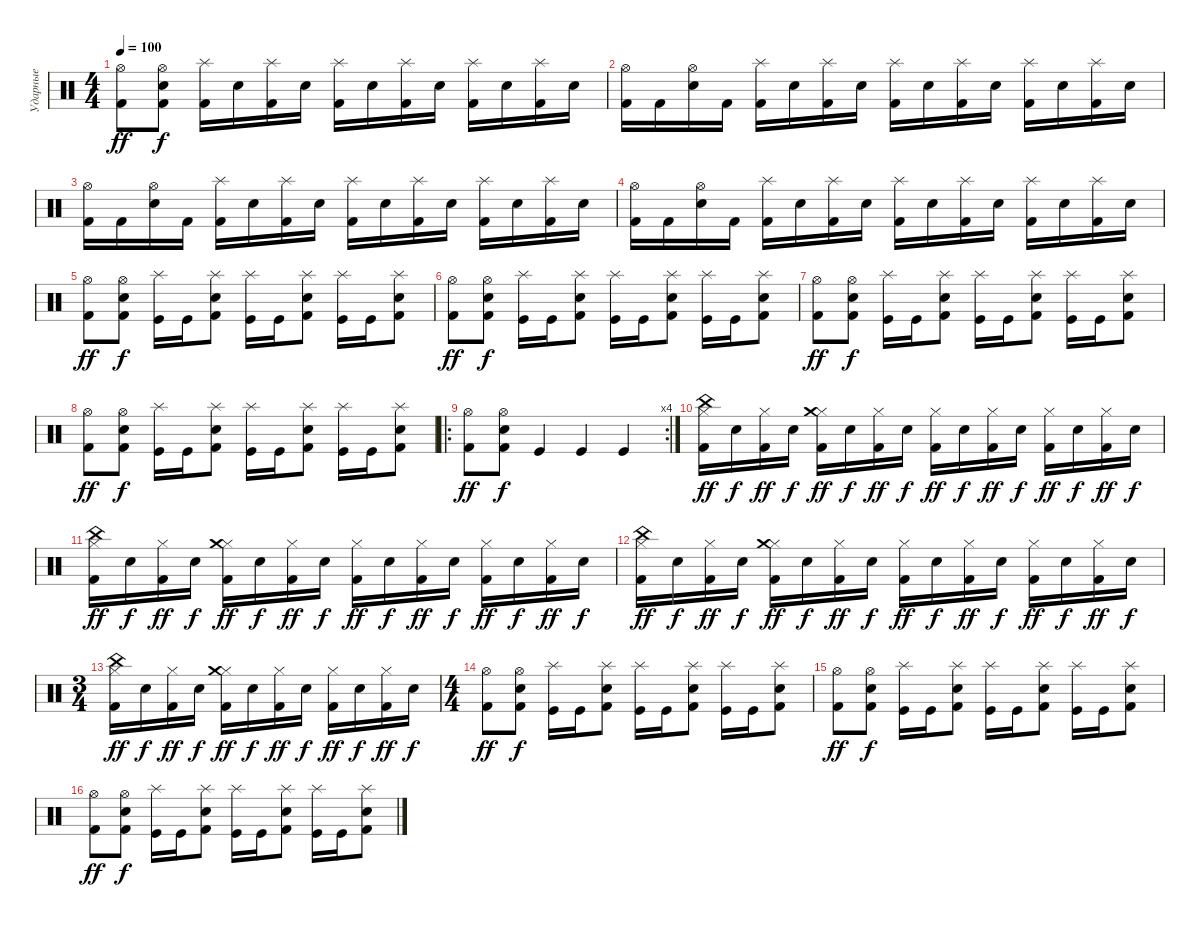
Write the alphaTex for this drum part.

\track ("Ударные" "Ударные") {instrument percussion}
\staff {score}
\articulation defaults
\ts (4 4)
\tempo 100
\clef neutral
\ks c
("Hi-Hat (open)" "Kick (hit) 2").8{dy ff} ("Hi-Hat (open)" "Electric Snare (hit)" "Kick (hit) 2").8{dy f} ("Splash (hit)" "Kick (hit) 2").16 "Electric Snare (hit)".16 ("Splash (hit)" "Kick (hit) 2").16 "Electric Snare (hit)".16 ("Splash (hit)" "Kick (hit) 2").16 "Electric Snare (hit)".16 ("Splash (hit)" "Kick (hit) 2").16 "Electric Snare (hit)".16 ("Splash (hit)" "Kick (hit) 2").16 "Electric Snare (hit)".16 ("Splash (hit)" "Kick (hit) 2").16 "Electric Snare (hit)".16 |
("Hi-Hat (open)" "Kick (hit) 2").16 "Kick (hit) 2".16 ("Hi-Hat (open)" "Electric Snare (hit)").16 "Kick (hit) 2".16 ("Splash (hit)" "Kick (hit) 2").16 "Electric Snare (hit)".16 ("Splash (hit)" "Kick (hit) 2").16 "Electric Snare (hit)".16 ("Splash (hit)" "Kick (hit) 2").16 "Electric Snare (hit)".16 ("Splash (hit)" "Kick (hit) 2").16 "Electric Snare (hit)".16 ("Splash (hit)" "Kick (hit) 2").16 "Electric Snare (hit)".16 ("Splash (hit)" "Kick (hit) 2").16 "Electric Snare (hit)".16 |
("Hi-Hat (open)" "Kick (hit) 2").16 "Kick (hit) 2".16 ("Hi-Hat (open)" "Electric Snare (hit)").16 "Kick (hit) 2".16 ("Splash (hit)" "Kick (hit) 2").16 "Electric Snare (hit)".16 ("Splash (hit)" "Kick (hit) 2").16 "Electric Snare (hit)".16 ("Splash (hit)" "Kick (hit) 2").16 "Electric Snare (hit)".16 ("Splash (hit)" "Kick (hit) 2").16 "Electric Snare (hit)".16 ("Splash (hit)" "Kick (hit) 2").16 "Electric Snare (hit)".16 ("Splash (hit)" "Kick (hit) 2").16 "Electric Snare (hit)".16 |
("Hi-Hat (open)" "Kick (hit) 2").16 "Kick (hit) 2".16 ("Hi-Hat (open)" "Electric Snare (hit)").16 "Kick (hit) 2".16 ("Splash (hit)" "Kick (hit) 2").16 "Electric Snare (hit)".16 ("Splash (hit)" "Kick (hit) 2").16 "Electric Snare (hit)".16 ("Splash (hit)" "Kick (hit) 2").16 "Electric Snare (hit)".16 ("Splash (hit)" "Kick (hit) 2").16 "Electric Snare (hit)".16 ("Splash (hit)" "Kick (hit) 2").16 "Electric Snare (hit)".16 ("Splash (hit)" "Kick (hit) 2").16 "Electric Snare (hit)".16 |
("Hi-Hat (open)" "Kick (hit) 2").8{dy ff} ("Hi-Hat (open)" "Electric Snare (hit)" "Kick (hit) 2").8{dy f} ("Splash (hit)" "Kick (hit)").16 "Kick (hit)".16 ("Splash (hit)" "Electric Snare (hit)" "Kick (hit) 2").8 ("Splash (hit)" "Kick (hit)").16 "Kick (hit)".16 ("Splash (hit)" "Electric Snare (hit)" "Kick (hit) 2").8 ("Splash (hit)" "Kick (hit)").16 "Kick (hit)".16 ("Splash (hit)" "Electric Snare (hit)" "Kick (hit) 2").8 |
("Hi-Hat (open)" "Kick (hit) 2").8{dy ff} ("Hi-Hat (open)" "Electric Snare (hit)" "Kick (hit) 2").8{dy f} ("Splash (hit)" "Kick (hit)").16 "Kick (hit)".16 ("Splash (hit)" "Electric Snare (hit)" "Kick (hit) 2").8 ("Splash (hit)" "Kick (hit)").16 "Kick (hit)".16 ("Splash (hit)" "Electric Snare (hit)" "Kick (hit) 2").8 ("Splash (hit)" "Kick (hit)").16 "Kick (hit)".16 ("Splash (hit)" "Electric Snare (hit)" "Kick (hit) 2").8 |
("Hi-Hat (open)" "Kick (hit) 2").8{dy ff} ("Hi-Hat (open)" "Electric Snare (hit)" "Kick (hit) 2").8{dy f} ("Splash (hit)" "Kick (hit)").16 "Kick (hit)".16 ("Splash (hit)" "Electric Snare (hit)" "Kick (hit) 2").8 ("Splash (hit)" "Kick (hit)").16 "Kick (hit)".16 ("Splash (hit)" "Electric Snare (hit)" "Kick (hit) 2").8 ("Splash (hit)" "Kick (hit)").16 "Kick (hit)".16 ("Splash (hit)" "Electric Snare (hit)" "Kick (hit) 2").8 |
("Hi-Hat (open)" "Kick (hit) 2").8{dy ff} ("Hi-Hat (open)" "Electric Snare (hit)" "Kick (hit) 2").8{dy f} ("Splash (hit)" "Kick (hit)").16 "Kick (hit)".16 ("Splash (hit)" "Electric Snare (hit)" "Kick (hit) 2").8 ("Splash (hit)" "Kick (hit)").16 "Kick (hit)".16 ("Splash (hit)" "Electric Snare (hit)" "Kick (hit) 2").8 ("Splash (hit)" "Kick (hit)").16 "Kick (hit)".16 ("Splash (hit)" "Electric Snare (hit)" "Kick (hit) 2").8 |
\ro
\rc 4
("Hi-Hat (open)" "Kick (hit) 2").8{dy ff} ("Hi-Hat (open)" "Electric Snare (hit)" "Kick (hit) 2").8{dy f} "Kick (hit)".4 "Kick (hit)".4 "Kick (hit)".4 |
("Hi-Hat (closed)" "China (hit)" "Kick (hit) 2").16{dy ff} "Electric Snare (hit)".16{dy f} ("Hi-Hat (closed)" "Kick (hit) 2").16{dy ff} "Electric Snare (hit)".16{dy f} ("Hi-Hat (closed)" "Crash medium (hit)" "Kick (hit) 2").16{dy ff} "Electric Snare (hit)".16{dy f} ("Hi-Hat (closed)" "Kick (hit) 2").16{dy ff} "Electric Snare (hit)".16{dy f} ("Hi-Hat (closed)" "Kick (hit) 2").16{dy ff} "Electric Snare (hit)".16{dy f} ("Hi-Hat (closed)" "Kick (hit) 2").16{dy ff} "Electric Snare (hit)".16{dy f} ("Hi-Hat (closed)" "Kick (hit) 2").16{dy ff} "Electric Snare (hit)".16{dy f} ("Hi-Hat (closed)" "Kick (hit) 2").16{dy ff} "Electric Snare (hit)".16{dy f} |
("Hi-Hat (closed)" "China (hit)" "Kick (hit) 2").16{dy ff} "Electric Snare (hit)".16{dy f} ("Hi-Hat (closed)" "Kick (hit) 2").16{dy ff} "Electric Snare (hit)".16{dy f} ("Hi-Hat (closed)" "Crash medium (hit)" "Kick (hit) 2").16{dy ff} "Electric Snare (hit)".16{dy f} ("Hi-Hat (closed)" "Kick (hit) 2").16{dy ff} "Electric Snare (hit)".16{dy f} ("Hi-Hat (closed)" "Kick (hit) 2").16{dy ff} "Electric Snare (hit)".16{dy f} ("Hi-Hat (closed)" "Kick (hit) 2").16{dy ff} "Electric Snare (hit)".16{dy f} ("Hi-Hat (closed)" "Kick (hit) 2").16{dy ff} "Electric Snare (hit)".16{dy f} ("Hi-Hat (closed)" "Kick (hit) 2").16{dy ff} "Electric Snare (hit)".16{dy f} |
("Hi-Hat (closed)" "China (hit)" "Kick (hit) 2").16{dy ff} "Electric Snare (hit)".16{dy f} ("Hi-Hat (closed)" "Kick (hit) 2").16{dy ff} "Electric Snare (hit)".16{dy f} ("Hi-Hat (closed)" "Crash medium (hit)" "Kick (hit) 2").16{dy ff} "Electric Snare (hit)".16{dy f} ("Hi-Hat (closed)" "Kick (hit) 2").16{dy ff} "Electric Snare (hit)".16{dy f} ("Hi-Hat (closed)" "Kick (hit) 2").16{dy ff} "Electric Snare (hit)".16{dy f} ("Hi-Hat (closed)" "Kick (hit) 2").16{dy ff} "Electric Snare (hit)".16{dy f} ("Hi-Hat (closed)" "Kick (hit) 2").16{dy ff} "Electric Snare (hit)".16{dy f} ("Hi-Hat (closed)" "Kick (hit) 2").16{dy ff} "Electric Snare (hit)".16{dy f} |
\ts (3 4)
("Hi-Hat (closed)" "China (hit)" "Kick (hit) 2").16{dy ff} "Electric Snare (hit)".16{dy f} ("Hi-Hat (closed)" "Kick (hit) 2").16{dy ff} "Electric Snare (hit)".16{dy f} ("Hi-Hat (closed)" "Crash medium (hit)" "Kick (hit) 2").16{dy ff} "Electric Snare (hit)".16{dy f} ("Hi-Hat (closed)" "Kick (hit) 2").16{dy ff} "Electric Snare (hit)".16{dy f} ("Hi-Hat (closed)" "Kick (hit) 2").16{dy ff} "Electric Snare (hit)".16{dy f} ("Hi-Hat (closed)" "Kick (hit) 2").16{dy ff} "Electric Snare (hit)".16{dy f} |
\ts (4 4)
("Hi-Hat (open)" "Kick (hit) 2").8{dy ff} ("Hi-Hat (open)" "Electric Snare (hit)" "Kick (hit) 2").8{dy f} ("Splash (hit)" "Kick (hit)").16 "Kick (hit)".16 ("Splash (hit)" "Electric Snare (hit)" "Kick (hit) 2").8 ("Splash (hit)" "Kick (hit)").16 "Kick (hit)".16 ("Splash (hit)" "Electric Snare (hit)" "Kick (hit) 2").8 ("Splash (hit)" "Kick (hit)").16 "Kick (hit)".16 ("Splash (hit)" "Electric Snare (hit)" "Kick (hit) 2").8 |
("Hi-Hat (open)" "Kick (hit) 2").8{dy ff} ("Hi-Hat (open)" "Electric Snare (hit)" "Kick (hit) 2").8{dy f} ("Splash (hit)" "Kick (hit)").16 "Kick (hit)".16 ("Splash (hit)" "Electric Snare (hit)" "Kick (hit) 2").8 ("Splash (hit)" "Kick (hit)").16 "Kick (hit)".16 ("Splash (hit)" "Electric Snare (hit)" "Kick (hit) 2").8 ("Splash (hit)" "Kick (hit)").16 "Kick (hit)".16 ("Splash (hit)" "Electric Snare (hit)" "Kick (hit) 2").8 |
("Hi-Hat (open)" "Kick (hit) 2").8{dy ff} ("Hi-Hat (open)" "Electric Snare (hit)" "Kick (hit) 2").8{dy f} ("Splash (hit)" "Kick (hit)").16 "Kick (hit)".16 ("Splash (hit)" "Electric Snare (hit)" "Kick (hit) 2").8 ("Splash (hit)" "Kick (hit)").16 "Kick (hit)".16 ("Splash (hit)" "Electric Snare (hit)" "Kick (hit) 2").8 ("Splash (hit)" "Kick (hit)").16 "Kick (hit)".16 ("Splash (hit)" "Electric Snare (hit)" "Kick (hit) 2").8
